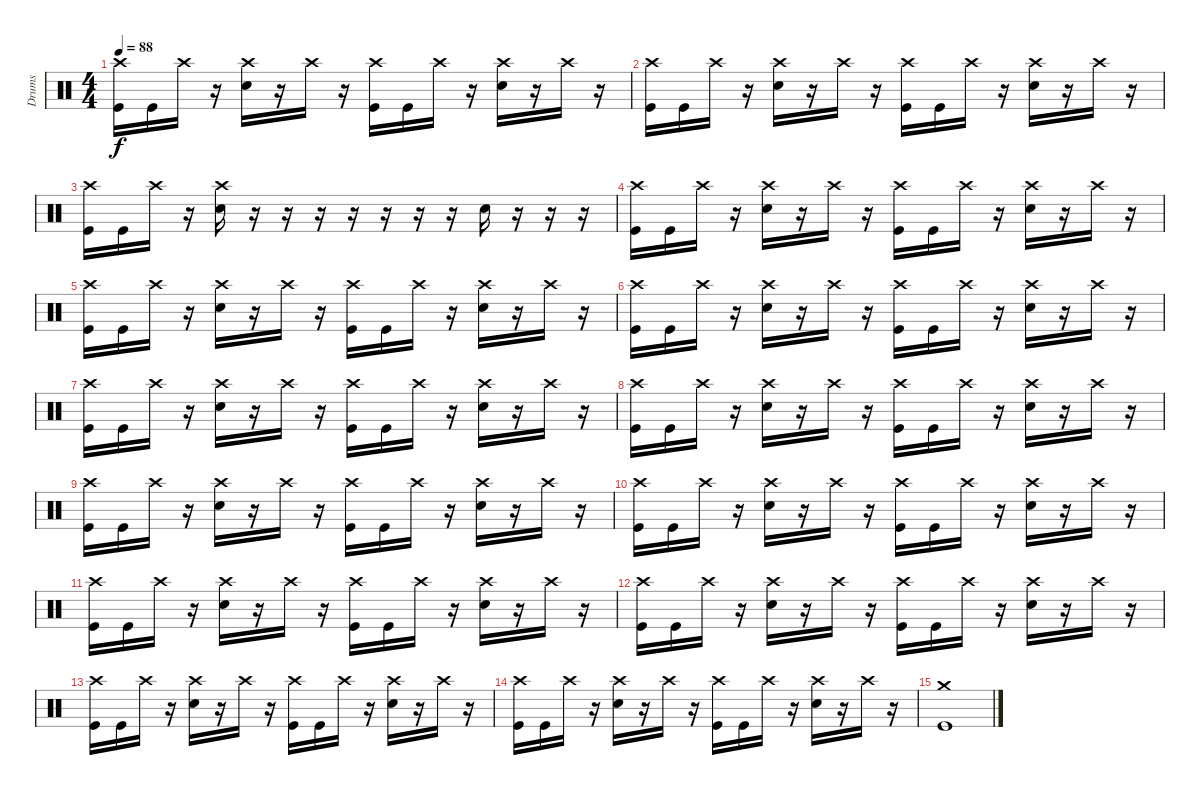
\track ("Drums" "Drums") {instrument percussion}
\staff {score}
\articulation defaults
\ts (4 4)
\tempo 88
\clef neutral
\ks c
("Crash high (hit)" "Kick (hit)").16{dy f} "Kick (hit)".16 "Crash high (hit)".16 r.16 ("Crash high (hit)" "Electric Snare (hit)").16 r.16 "Crash high (hit)".16 r.16 ("Crash high (hit)" "Kick (hit)").16 "Kick (hit)".16 "Crash high (hit)".16 r.16 ("Crash high (hit)" "Electric Snare (hit)").16 r.16 "Crash high (hit)".16 r.16 |
("Crash high (hit)" "Kick (hit)").16 "Kick (hit)".16 "Crash high (hit)".16 r.16 ("Crash high (hit)" "Electric Snare (hit)").16 r.16 "Crash high (hit)".16 r.16 ("Crash high (hit)" "Kick (hit)").16 "Kick (hit)".16 "Crash high (hit)".16 r.16 ("Crash high (hit)" "Electric Snare (hit)").16 r.16 "Crash high (hit)".16 r.16 |
("Crash high (hit)" "Kick (hit)").16 "Kick (hit)".16 "Crash high (hit)".16 r.16 ("Crash high (hit)" "Electric Snare (hit)").16 r.16 r.16 r.16 r.16 r.16 r.16 r.16 "Electric Snare (hit)".16 r.16 r.16 r.16 |
("Crash high (hit)" "Kick (hit)").16 "Kick (hit)".16 "Crash high (hit)".16 r.16 ("Crash high (hit)" "Electric Snare (hit)").16 r.16 "Crash high (hit)".16 r.16 ("Crash high (hit)" "Kick (hit)").16 "Kick (hit)".16 "Crash high (hit)".16 r.16 ("Crash high (hit)" "Electric Snare (hit)").16 r.16 "Crash high (hit)".16 r.16 |
("Crash high (hit)" "Kick (hit)").16 "Kick (hit)".16 "Crash high (hit)".16 r.16 ("Crash high (hit)" "Electric Snare (hit)").16 r.16 "Crash high (hit)".16 r.16 ("Crash high (hit)" "Kick (hit)").16 "Kick (hit)".16 "Crash high (hit)".16 r.16 ("Crash high (hit)" "Electric Snare (hit)").16 r.16 "Crash high (hit)".16 r.16 |
("Crash high (hit)" "Kick (hit)").16 "Kick (hit)".16 "Crash high (hit)".16 r.16 ("Crash high (hit)" "Electric Snare (hit)").16 r.16 "Crash high (hit)".16 r.16 ("Crash high (hit)" "Kick (hit)").16 "Kick (hit)".16 "Crash high (hit)".16 r.16 ("Crash high (hit)" "Electric Snare (hit)").16 r.16 "Crash high (hit)".16 r.16 |
("Crash high (hit)" "Kick (hit)").16 "Kick (hit)".16 "Crash high (hit)".16 r.16 ("Crash high (hit)" "Electric Snare (hit)").16 r.16 "Crash high (hit)".16 r.16 ("Crash high (hit)" "Kick (hit)").16 "Kick (hit)".16 "Crash high (hit)".16 r.16 ("Crash high (hit)" "Electric Snare (hit)").16 r.16 "Crash high (hit)".16 r.16 |
("Crash high (hit)" "Kick (hit)").16 "Kick (hit)".16 "Crash high (hit)".16 r.16 ("Crash high (hit)" "Electric Snare (hit)").16 r.16 "Crash high (hit)".16 r.16 ("Crash high (hit)" "Kick (hit)").16 "Kick (hit)".16 "Crash high (hit)".16 r.16 ("Crash high (hit)" "Electric Snare (hit)").16 r.16 "Crash high (hit)".16 r.16 |
("Crash high (hit)" "Kick (hit)").16 "Kick (hit)".16 "Crash high (hit)".16 r.16 ("Crash high (hit)" "Electric Snare (hit)").16 r.16 "Crash high (hit)".16 r.16 ("Crash high (hit)" "Kick (hit)").16 "Kick (hit)".16 "Crash high (hit)".16 r.16 ("Crash high (hit)" "Electric Snare (hit)").16 r.16 "Crash high (hit)".16 r.16 |
("Crash high (hit)" "Kick (hit)").16 "Kick (hit)".16 "Crash high (hit)".16 r.16 ("Crash high (hit)" "Electric Snare (hit)").16 r.16 "Crash high (hit)".16 r.16 ("Crash high (hit)" "Kick (hit)").16 "Kick (hit)".16 "Crash high (hit)".16 r.16 ("Crash high (hit)" "Electric Snare (hit)").16 r.16 "Crash high (hit)".16 r.16 |
("Crash high (hit)" "Kick (hit)").16 "Kick (hit)".16 "Crash high (hit)".16 r.16 ("Crash high (hit)" "Electric Snare (hit)").16 r.16 "Crash high (hit)".16 r.16 ("Crash high (hit)" "Kick (hit)").16 "Kick (hit)".16 "Crash high (hit)".16 r.16 ("Crash high (hit)" "Electric Snare (hit)").16 r.16 "Crash high (hit)".16 r.16 |
("Crash high (hit)" "Kick (hit)").16 "Kick (hit)".16 "Crash high (hit)".16 r.16 ("Crash high (hit)" "Electric Snare (hit)").16 r.16 "Crash high (hit)".16 r.16 ("Crash high (hit)" "Kick (hit)").16 "Kick (hit)".16 "Crash high (hit)".16 r.16 ("Crash high (hit)" "Electric Snare (hit)").16 r.16 "Crash high (hit)".16 r.16 |
("Crash high (hit)" "Kick (hit)").16 "Kick (hit)".16 "Crash high (hit)".16 r.16 ("Crash high (hit)" "Electric Snare (hit)").16 r.16 "Crash high (hit)".16 r.16 ("Crash high (hit)" "Kick (hit)").16 "Kick (hit)".16 "Crash high (hit)".16 r.16 ("Crash high (hit)" "Electric Snare (hit)").16 r.16 "Crash high (hit)".16 r.16 |
("Crash high (hit)" "Kick (hit)").16 "Kick (hit)".16 "Crash high (hit)".16 r.16 ("Crash high (hit)" "Electric Snare (hit)").16 r.16 "Crash high (hit)".16 r.16 ("Crash high (hit)" "Kick (hit)").16 "Kick (hit)".16 "Crash high (hit)".16 r.16 ("Crash high (hit)" "Electric Snare (hit)").16 r.16 "Crash high (hit)".16 r.16 |
("Crash medium (hit)" "Kick (hit)").1
